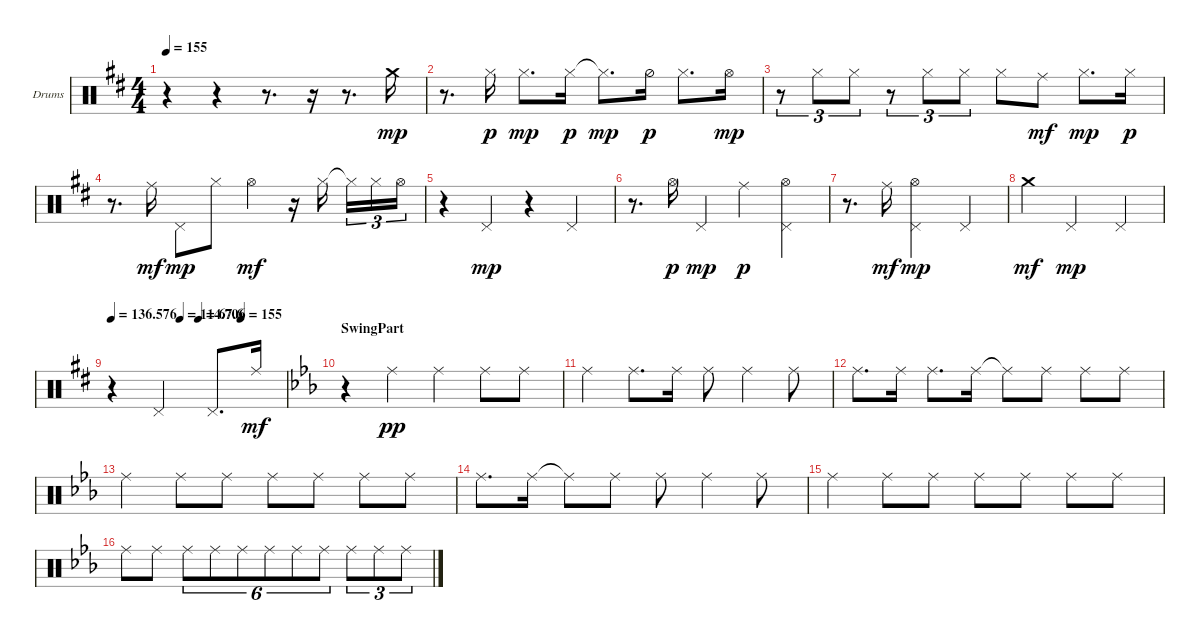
\bracketExtendMode groupsimilarinstruments
\firstSystemTrackNameOrientation horizontal
\otherSystemsTrackNameOrientation horizontal
\track ("Perc" "Drums") {instrument percussion}
\staff {score}
\articulation defaults
\ts (4 4)
\tempo 155
\clef neutral
\ks d
r.4{dy p} r.4 r.8{d} r.16 r.8{d} "Crash medium (hit)".16{dy mp} |
r.8{d} "Hi-Hat (closed)".16{dy p} "Hi-Hat (closed)".8{d dy mp} "Hi-Hat (closed)".16{dy p} "Hi-Hat (closed)"{t}.8{d dy mp} "Hi-Hat (half)".16{dy p} "Hi-Hat (closed)".8{d} "Hi-Hat (open)".16{dy mp} |
r.8{tu (3 2)} "Hi-Hat (closed)".8{tu (3 2)} "Hi-Hat (closed)".8{tu (3 2)} r.8{tu (3 2)} "Hi-Hat (closed)".8{tu (3 2)} "Hi-Hat (closed)".8{tu (3 2)} "Hi-Hat (closed)".8 "Ride (middle)".8{dy mf} "Hi-Hat (closed)".8{d dy mp} "Hi-Hat (closed)".16{dy p} |
r.8{d} "Ride (middle)".16{dy mf} "Pedal Hi-Hat (hit)".8{dy mp} "Hi-Hat (closed)".8 "Hi-Hat (open)".4{dy mf} r.16 "Hi-Hat (closed)".16 "Hi-Hat (closed)"{t}.16{tu (3 2)} "Hi-Hat (closed)".16{tu (3 2)} "Hi-Hat (open)".16{tu (3 2)} |
r.4 "Pedal Hi-Hat (hit)".4{dy mp} r.4 "Pedal Hi-Hat (hit)".4 |
r.8{d} "Hi-Hat (open)".16{dy p} "Pedal Hi-Hat (hit)".4{dy mp} "Ride (middle)".4{dy p} ("Pedal Hi-Hat (hit)" "Hi-Hat (open)").4 |
r.8{d} "Ride (middle)".16{dy mf} ("Hi-Hat (open)" "Pedal Hi-Hat (hit)").2{dy mp} "Pedal Hi-Hat (hit)".4 |
"Crash medium (hit)".4{dy mf} "Pedal Hi-Hat (hit)".2{dy mp} "Pedal Hi-Hat (hit)".4 |
\tempo
136.576
\tempo (114.706 0.39375)
\tempo (67.6 0.5)
\tempo (155 0.74375)
r.4 "Pedal Hi-Hat (hit)".2 "Pedal Hi-Hat (hit)".8{d} "Ride (middle)".16{dy mf} |
\section ("" "SwingPart")
\ks eb
r.4 "Ride (middle)".4{dy pp} "Ride (middle)".4 "Ride (middle)".8 "Ride (middle)".8 |
"Ride (middle)".4 "Ride (middle)".8{d} "Ride (middle)".16 "Ride (middle)".8 "Ride (middle)".4 "Ride (middle)".8 |
"Ride (middle)".8{d} "Ride (middle)".16 "Ride (middle)".8{d} "Ride (middle)".16 "Ride (middle)"{t}.8 "Ride (middle)".8 "Ride (middle)".8 "Ride (middle)".8 |
"Ride (middle)".4 "Ride (middle)".8 "Ride (middle)".8 "Ride (middle)".8 "Ride (middle)".8 "Ride (middle)".8 "Ride (middle)".8 |
"Ride (middle)".8{d} "Ride (middle)".16 "Ride (middle)"{t}.8 "Ride (middle)".8 "Ride (middle)".8 "Ride (middle)".4 "Ride (middle)".8 |
"Ride (middle)".4 "Ride (middle)".8 "Ride (middle)".8 "Ride (middle)".8 "Ride (middle)".8 "Ride (middle)".8 "Ride (middle)".8 |
"Ride (middle)".8 "Ride (middle)".8 "Ride (middle)".8{tu (6 4)} "Ride (middle)".8{tu (6 4)} "Ride (middle)".8{tu (6 4)} "Ride (middle)".8{tu (6 4)} "Ride (middle)".8{tu (6 4)} "Ride (middle)".8{tu (6 4)} "Ride (middle)".8{tu (3 2)} "Ride (middle)".8{tu (3 2)} "Ride (middle)".8{tu (3 2)}
